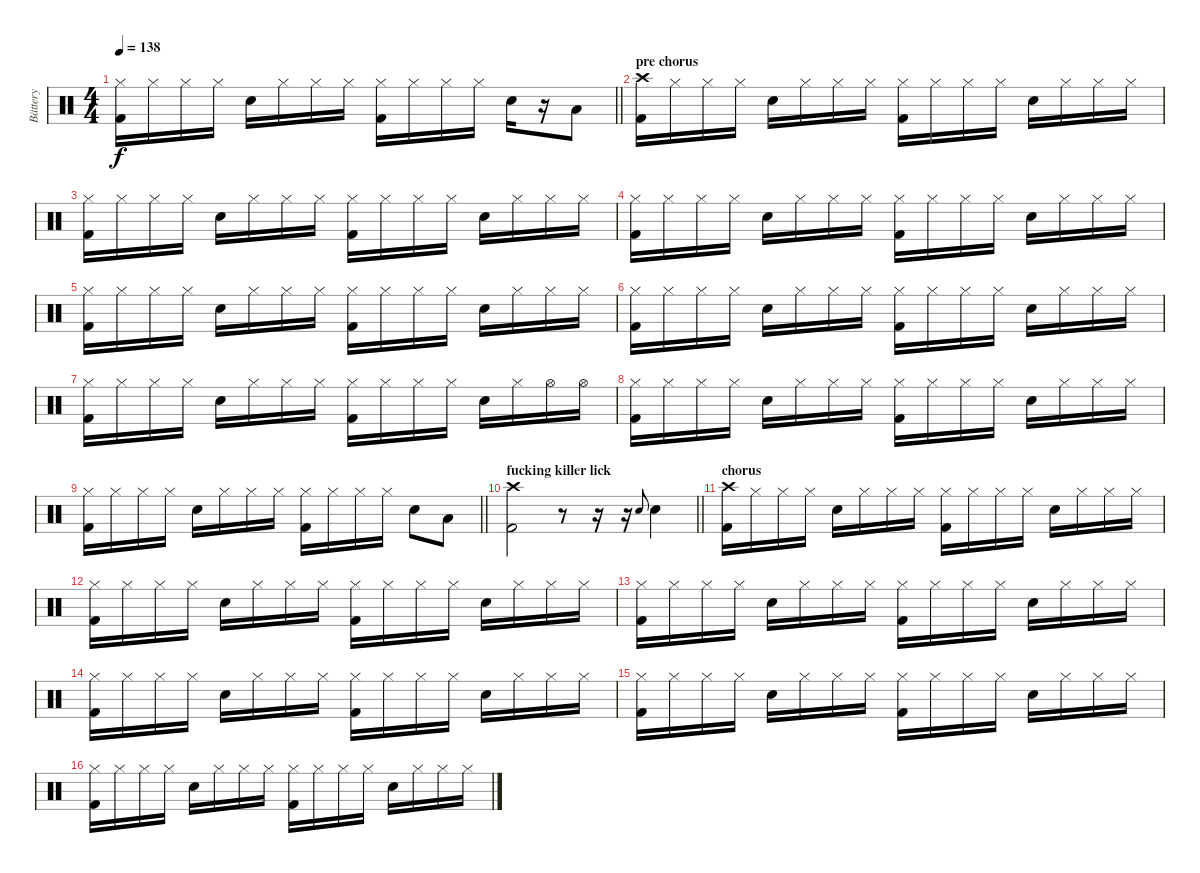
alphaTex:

\track ("Bättery" "Bättery") {instrument percussion}
\staff {score}
\articulation defaults
\ts (4 4)
\tempo 138
\clef neutral
\barLineRight lightlight
\ks c
("Hi-Hat (closed)" "Kick (hit) 2").16{dy f} "Hi-Hat (closed)".16 "Hi-Hat (closed)".16 "Hi-Hat (closed)".16 "Electric Snare (hit)".16 "Hi-Hat (closed)".16 "Hi-Hat (closed)".16 "Hi-Hat (closed)".16 ("Hi-Hat (closed)" "Kick (hit) 2").16 "Hi-Hat (closed)".16 "Hi-Hat (closed)".16 "Hi-Hat (closed)".16 "Electric Snare (hit)".16 r.16 "Low Tom (hit)".8 |
\section ("" "pre chorus")
("Crash high (hit)" "Kick (hit) 2").16 "Hi-Hat (closed)".16 "Hi-Hat (closed)".16 "Hi-Hat (closed)".16 "Electric Snare (hit)".16 "Hi-Hat (closed)".16 "Hi-Hat (closed)".16 "Hi-Hat (closed)".16 ("Hi-Hat (closed)" "Kick (hit) 2").16 "Hi-Hat (closed)".16 "Hi-Hat (closed)".16 "Hi-Hat (closed)".16 "Electric Snare (hit)".16 "Hi-Hat (closed)".16 "Hi-Hat (closed)".16 "Hi-Hat (closed)".16 |
("Hi-Hat (closed)" "Kick (hit) 2").16 "Hi-Hat (closed)".16 "Hi-Hat (closed)".16 "Hi-Hat (closed)".16 "Electric Snare (hit)".16 "Hi-Hat (closed)".16 "Hi-Hat (closed)".16 "Hi-Hat (closed)".16 ("Hi-Hat (closed)" "Kick (hit) 2").16 "Hi-Hat (closed)".16 "Hi-Hat (closed)".16 "Hi-Hat (closed)".16 "Electric Snare (hit)".16 "Hi-Hat (closed)".16 "Hi-Hat (closed)".16 "Hi-Hat (closed)".16 |
("Hi-Hat (closed)" "Kick (hit) 2").16 "Hi-Hat (closed)".16 "Hi-Hat (closed)".16 "Hi-Hat (closed)".16 "Electric Snare (hit)".16 "Hi-Hat (closed)".16 "Hi-Hat (closed)".16 "Hi-Hat (closed)".16 ("Hi-Hat (closed)" "Kick (hit) 2").16 "Hi-Hat (closed)".16 "Hi-Hat (closed)".16 "Hi-Hat (closed)".16 "Electric Snare (hit)".16 "Hi-Hat (closed)".16 "Hi-Hat (closed)".16 "Hi-Hat (closed)".16 |
("Hi-Hat (closed)" "Kick (hit) 2").16 "Hi-Hat (closed)".16 "Hi-Hat (closed)".16 "Hi-Hat (closed)".16 "Electric Snare (hit)".16 "Hi-Hat (closed)".16 "Hi-Hat (closed)".16 "Hi-Hat (closed)".16 ("Hi-Hat (closed)" "Kick (hit) 2").16 "Hi-Hat (closed)".16 "Hi-Hat (closed)".16 "Hi-Hat (closed)".16 "Electric Snare (hit)".16 "Hi-Hat (closed)".16 "Hi-Hat (closed)".16 "Hi-Hat (closed)".16 |
("Hi-Hat (closed)" "Kick (hit) 2").16 "Hi-Hat (closed)".16 "Hi-Hat (closed)".16 "Hi-Hat (closed)".16 "Electric Snare (hit)".16 "Hi-Hat (closed)".16 "Hi-Hat (closed)".16 "Hi-Hat (closed)".16 ("Hi-Hat (closed)" "Kick (hit) 2").16 "Hi-Hat (closed)".16 "Hi-Hat (closed)".16 "Hi-Hat (closed)".16 "Electric Snare (hit)".16 "Hi-Hat (closed)".16 "Hi-Hat (closed)".16 "Hi-Hat (closed)".16 |
("Hi-Hat (closed)" "Kick (hit) 2").16 "Hi-Hat (closed)".16 "Hi-Hat (closed)".16 "Hi-Hat (closed)".16 "Electric Snare (hit)".16 "Hi-Hat (closed)".16 "Hi-Hat (closed)".16 "Hi-Hat (closed)".16 ("Hi-Hat (closed)" "Kick (hit) 2").16 "Hi-Hat (closed)".16 "Hi-Hat (closed)".16 "Hi-Hat (closed)".16 "Electric Snare (hit)".16 "Hi-Hat (closed)".16 "Hi-Hat (open)".16 "Hi-Hat (open)".16 |
("Hi-Hat (closed)" "Kick (hit) 2").16 "Hi-Hat (closed)".16 "Hi-Hat (closed)".16 "Hi-Hat (closed)".16 "Electric Snare (hit)".16 "Hi-Hat (closed)".16 "Hi-Hat (closed)".16 "Hi-Hat (closed)".16 ("Hi-Hat (closed)" "Kick (hit) 2").16 "Hi-Hat (closed)".16 "Hi-Hat (closed)".16 "Hi-Hat (closed)".16 "Electric Snare (hit)".16 "Hi-Hat (closed)".16 "Hi-Hat (closed)".16 "Hi-Hat (closed)".16 |
\barLineRight lightlight
("Hi-Hat (closed)" "Kick (hit) 2").16 "Hi-Hat (closed)".16 "Hi-Hat (closed)".16 "Hi-Hat (closed)".16 "Electric Snare (hit)".16 "Hi-Hat (closed)".16 "Hi-Hat (closed)".16 "Hi-Hat (closed)".16 ("Hi-Hat (closed)" "Kick (hit) 2").16 "Hi-Hat (closed)".16 "Hi-Hat (closed)".16 "Hi-Hat (closed)".16 "Electric Snare (hit)".8 "Low Tom (hit)".8 |
\section ("" "fucking killer lick")
\barLineRight lightlight
("Crash high (hit)" "Kick (hit) 2").2 r.8 r.16 r.16 "Electric Snare (hit)".8{gr onbeat} "Electric Snare (hit)".4 |
\section ("" "chorus")
("Crash high (hit)" "Kick (hit) 2").16 "Hi-Hat (closed)".16 "Hi-Hat (closed)".16 "Hi-Hat (closed)".16 "Electric Snare (hit)".16 "Hi-Hat (closed)".16 "Hi-Hat (closed)".16 "Hi-Hat (closed)".16 ("Hi-Hat (closed)" "Kick (hit) 2").16 "Hi-Hat (closed)".16 "Hi-Hat (closed)".16 "Hi-Hat (closed)".16 "Electric Snare (hit)".16 "Hi-Hat (closed)".16 "Hi-Hat (closed)".16 "Hi-Hat (closed)".16 |
("Hi-Hat (closed)" "Kick (hit) 2").16 "Hi-Hat (closed)".16 "Hi-Hat (closed)".16 "Hi-Hat (closed)".16 "Electric Snare (hit)".16 "Hi-Hat (closed)".16 "Hi-Hat (closed)".16 "Hi-Hat (closed)".16 ("Hi-Hat (closed)" "Kick (hit) 2").16 "Hi-Hat (closed)".16 "Hi-Hat (closed)".16 "Hi-Hat (closed)".16 "Electric Snare (hit)".16 "Hi-Hat (closed)".16 "Hi-Hat (closed)".16 "Hi-Hat (closed)".16 |
("Hi-Hat (closed)" "Kick (hit) 2").16 "Hi-Hat (closed)".16 "Hi-Hat (closed)".16 "Hi-Hat (closed)".16 "Electric Snare (hit)".16 "Hi-Hat (closed)".16 "Hi-Hat (closed)".16 "Hi-Hat (closed)".16 ("Hi-Hat (closed)" "Kick (hit) 2").16 "Hi-Hat (closed)".16 "Hi-Hat (closed)".16 "Hi-Hat (closed)".16 "Electric Snare (hit)".16 "Hi-Hat (closed)".16 "Hi-Hat (closed)".16 "Hi-Hat (closed)".16 |
("Hi-Hat (closed)" "Kick (hit) 2").16 "Hi-Hat (closed)".16 "Hi-Hat (closed)".16 "Hi-Hat (closed)".16 "Electric Snare (hit)".16 "Hi-Hat (closed)".16 "Hi-Hat (closed)".16 "Hi-Hat (closed)".16 ("Hi-Hat (closed)" "Kick (hit) 2").16 "Hi-Hat (closed)".16 "Hi-Hat (closed)".16 "Hi-Hat (closed)".16 "Electric Snare (hit)".16 "Hi-Hat (closed)".16 "Hi-Hat (closed)".16 "Hi-Hat (closed)".16 |
("Hi-Hat (closed)" "Kick (hit) 2").16 "Hi-Hat (closed)".16 "Hi-Hat (closed)".16 "Hi-Hat (closed)".16 "Electric Snare (hit)".16 "Hi-Hat (closed)".16 "Hi-Hat (closed)".16 "Hi-Hat (closed)".16 ("Hi-Hat (closed)" "Kick (hit) 2").16 "Hi-Hat (closed)".16 "Hi-Hat (closed)".16 "Hi-Hat (closed)".16 "Electric Snare (hit)".16 "Hi-Hat (closed)".16 "Hi-Hat (closed)".16 "Hi-Hat (closed)".16 |
("Hi-Hat (closed)" "Kick (hit) 2").16 "Hi-Hat (closed)".16 "Hi-Hat (closed)".16 "Hi-Hat (closed)".16 "Electric Snare (hit)".16 "Hi-Hat (closed)".16 "Hi-Hat (closed)".16 "Hi-Hat (closed)".16 ("Hi-Hat (closed)" "Kick (hit) 2").16 "Hi-Hat (closed)".16 "Hi-Hat (closed)".16 "Hi-Hat (closed)".16 "Electric Snare (hit)".16 "Hi-Hat (closed)".16 "Hi-Hat (closed)".16 "Hi-Hat (closed)".16
